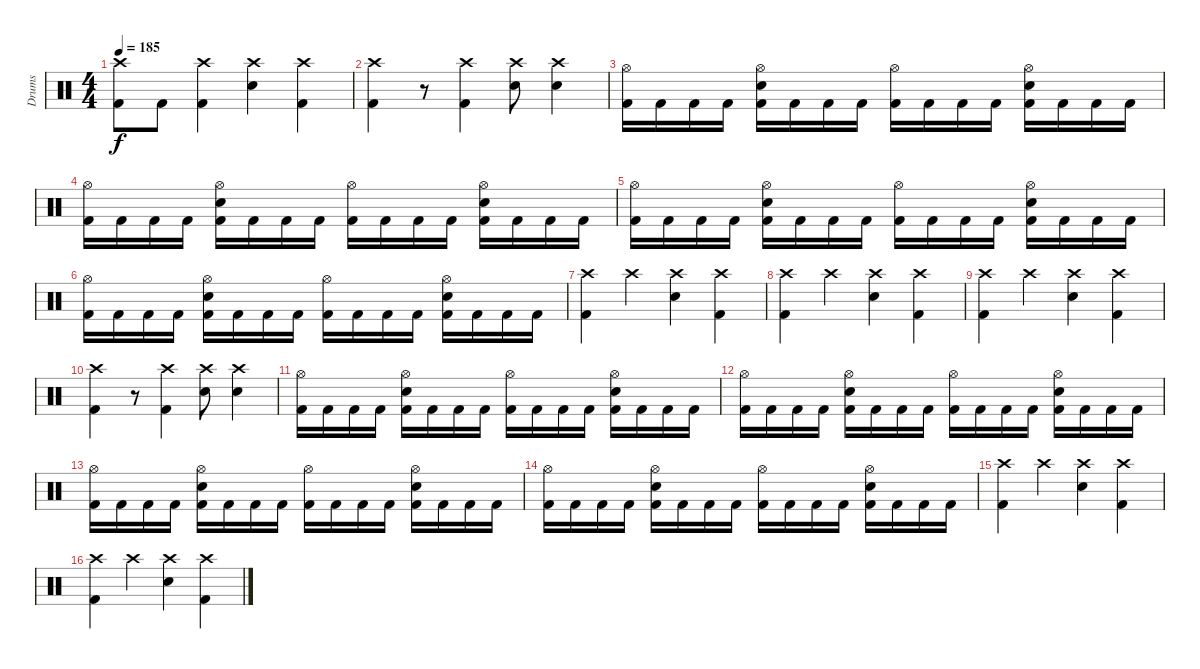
\track ("Drums" "Drums") {instrument percussion}
\staff {score}
\articulation defaults
\ts (4 4)
\tempo 185
\clef neutral
\ks c
("Crash high (hit)" "Kick (hit) 2").8{dy f} "Kick (hit) 2".8 ("Crash high (hit)" "Kick (hit) 2").4 ("Crash high (hit)" "Snare (hit) 2").4 ("Crash high (hit)" "Kick (hit) 2").4 |
("Crash high (hit)" "Kick (hit) 2").4 r.8 ("Crash high (hit)" "Kick (hit) 2").4 ("Crash high (hit)" "Snare (hit) 2").8 ("Crash high (hit)" "Snare (hit) 2").4 |
("Hi-Hat (open)" "Kick (hit) 2").16 "Kick (hit) 2".16 "Kick (hit) 2".16 "Kick (hit) 2".16 ("Hi-Hat (open)" "Snare (hit) 2" "Kick (hit) 2").16 "Kick (hit) 2".16 "Kick (hit) 2".16 "Kick (hit) 2".16 ("Hi-Hat (open)" "Kick (hit) 2").16 "Kick (hit) 2".16 "Kick (hit) 2".16 "Kick (hit) 2".16 ("Hi-Hat (open)" "Snare (hit) 2" "Kick (hit) 2").16 "Kick (hit) 2".16 "Kick (hit) 2".16 "Kick (hit) 2".16 |
("Hi-Hat (open)" "Kick (hit) 2").16 "Kick (hit) 2".16 "Kick (hit) 2".16 "Kick (hit) 2".16 ("Hi-Hat (open)" "Snare (hit) 2" "Kick (hit) 2").16 "Kick (hit) 2".16 "Kick (hit) 2".16 "Kick (hit) 2".16 ("Hi-Hat (open)" "Kick (hit) 2").16 "Kick (hit) 2".16 "Kick (hit) 2".16 "Kick (hit) 2".16 ("Hi-Hat (open)" "Snare (hit) 2" "Kick (hit) 2").16 "Kick (hit) 2".16 "Kick (hit) 2".16 "Kick (hit) 2".16 |
("Hi-Hat (open)" "Kick (hit) 2").16 "Kick (hit) 2".16 "Kick (hit) 2".16 "Kick (hit) 2".16 ("Hi-Hat (open)" "Snare (hit) 2" "Kick (hit) 2").16 "Kick (hit) 2".16 "Kick (hit) 2".16 "Kick (hit) 2".16 ("Hi-Hat (open)" "Kick (hit) 2").16 "Kick (hit) 2".16 "Kick (hit) 2".16 "Kick (hit) 2".16 ("Hi-Hat (open)" "Snare (hit) 2" "Kick (hit) 2").16 "Kick (hit) 2".16 "Kick (hit) 2".16 "Kick (hit) 2".16 |
("Hi-Hat (open)" "Kick (hit) 2").16 "Kick (hit) 2".16 "Kick (hit) 2".16 "Kick (hit) 2".16 ("Hi-Hat (open)" "Snare (hit) 2" "Kick (hit) 2").16 "Kick (hit) 2".16 "Kick (hit) 2".16 "Kick (hit) 2".16 ("Hi-Hat (open)" "Kick (hit) 2").16 "Kick (hit) 2".16 "Kick (hit) 2".16 "Kick (hit) 2".16 ("Hi-Hat (open)" "Snare (hit) 2" "Kick (hit) 2").16 "Kick (hit) 2".16 "Kick (hit) 2".16 "Kick (hit) 2".16 |
("Crash high (hit)" "Kick (hit) 2").4 "Crash high (hit)".4 ("Crash high (hit)" "Snare (hit) 2").4 ("Crash high (hit)" "Kick (hit) 2").4 |
("Crash high (hit)" "Kick (hit) 2").4 "Crash high (hit)".4 ("Crash high (hit)" "Snare (hit) 2").4 ("Crash high (hit)" "Kick (hit) 2").4 |
("Crash high (hit)" "Kick (hit) 2").4 "Crash high (hit)".4 ("Crash high (hit)" "Snare (hit) 2").4 ("Crash high (hit)" "Kick (hit) 2").4 |
("Crash high (hit)" "Kick (hit) 2").4 r.8 ("Crash high (hit)" "Kick (hit) 2").4 ("Crash high (hit)" "Snare (hit) 2").8 ("Crash high (hit)" "Snare (hit) 2").4 |
("Hi-Hat (open)" "Kick (hit) 2").16 "Kick (hit) 2".16 "Kick (hit) 2".16 "Kick (hit) 2".16 ("Hi-Hat (open)" "Snare (hit) 2" "Kick (hit) 2").16 "Kick (hit) 2".16 "Kick (hit) 2".16 "Kick (hit) 2".16 ("Hi-Hat (open)" "Kick (hit) 2").16 "Kick (hit) 2".16 "Kick (hit) 2".16 "Kick (hit) 2".16 ("Hi-Hat (open)" "Snare (hit) 2" "Kick (hit) 2").16 "Kick (hit) 2".16 "Kick (hit) 2".16 "Kick (hit) 2".16 |
("Hi-Hat (open)" "Kick (hit) 2").16 "Kick (hit) 2".16 "Kick (hit) 2".16 "Kick (hit) 2".16 ("Hi-Hat (open)" "Snare (hit) 2" "Kick (hit) 2").16 "Kick (hit) 2".16 "Kick (hit) 2".16 "Kick (hit) 2".16 ("Hi-Hat (open)" "Kick (hit) 2").16 "Kick (hit) 2".16 "Kick (hit) 2".16 "Kick (hit) 2".16 ("Hi-Hat (open)" "Snare (hit) 2" "Kick (hit) 2").16 "Kick (hit) 2".16 "Kick (hit) 2".16 "Kick (hit) 2".16 |
("Hi-Hat (open)" "Kick (hit) 2").16 "Kick (hit) 2".16 "Kick (hit) 2".16 "Kick (hit) 2".16 ("Hi-Hat (open)" "Snare (hit) 2" "Kick (hit) 2").16 "Kick (hit) 2".16 "Kick (hit) 2".16 "Kick (hit) 2".16 ("Hi-Hat (open)" "Kick (hit) 2").16 "Kick (hit) 2".16 "Kick (hit) 2".16 "Kick (hit) 2".16 ("Hi-Hat (open)" "Snare (hit) 2" "Kick (hit) 2").16 "Kick (hit) 2".16 "Kick (hit) 2".16 "Kick (hit) 2".16 |
("Hi-Hat (open)" "Kick (hit) 2").16 "Kick (hit) 2".16 "Kick (hit) 2".16 "Kick (hit) 2".16 ("Hi-Hat (open)" "Snare (hit) 2" "Kick (hit) 2").16 "Kick (hit) 2".16 "Kick (hit) 2".16 "Kick (hit) 2".16 ("Hi-Hat (open)" "Kick (hit) 2").16 "Kick (hit) 2".16 "Kick (hit) 2".16 "Kick (hit) 2".16 ("Hi-Hat (open)" "Snare (hit) 2" "Kick (hit) 2").16 "Kick (hit) 2".16 "Kick (hit) 2".16 "Kick (hit) 2".16 |
("Crash high (hit)" "Kick (hit) 2").4 "Crash high (hit)".4 ("Crash high (hit)" "Snare (hit) 2").4 ("Crash high (hit)" "Kick (hit) 2").4 |
("Crash high (hit)" "Kick (hit) 2").4 "Crash high (hit)".4 ("Crash high (hit)" "Snare (hit) 2").4 ("Crash high (hit)" "Kick (hit) 2").4
